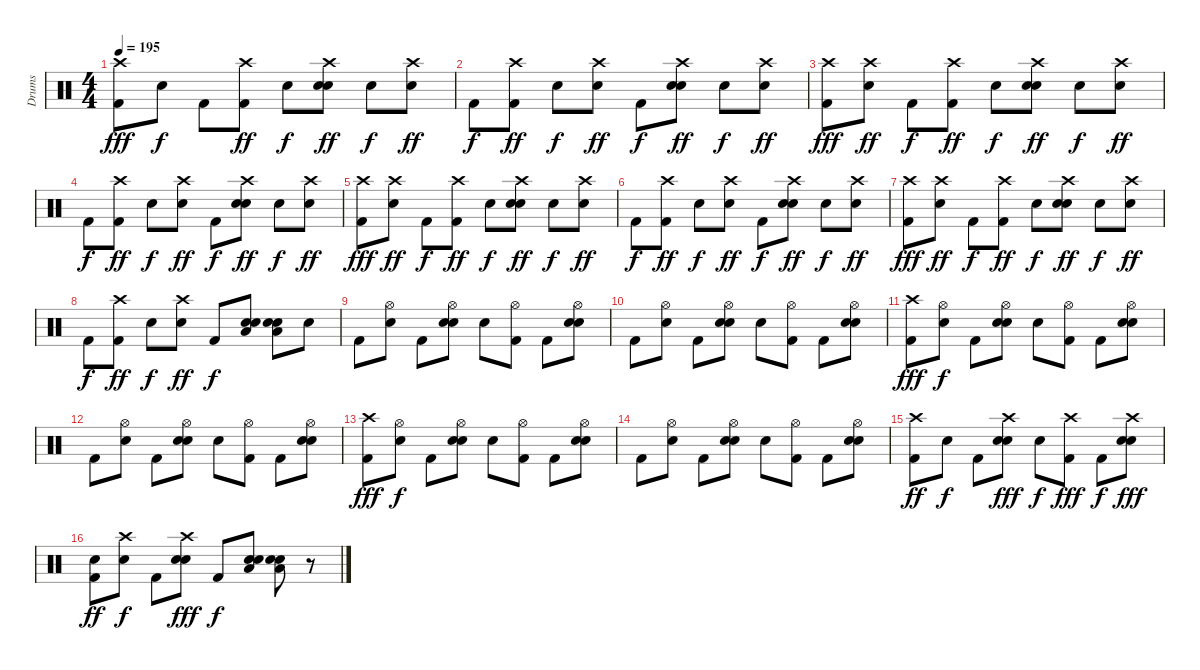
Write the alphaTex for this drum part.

\track ("Drums" "Drums") {instrument percussion}
\staff {score}
\articulation defaults
\ts (4 4)
\tempo 195
\clef neutral
\ks c
("Crash high (hit)" "Kick (hit) 2").8{dy fff} "Snare (hit)".8{dy f} "Kick (hit) 2".8 ("Crash high (hit)" "Kick (hit) 2").8{dy ff} "Snare (hit)".8{dy f} ("Crash high (hit)" "Snare (hit) 2" "Snare (hit)").8{dy ff} "Snare (hit)".8{dy f} ("Crash high (hit)" "Snare (hit)").8{dy ff} |
"Kick (hit) 2".8{dy f} ("Crash high (hit)" "Kick (hit) 2").8{dy ff} "Snare (hit)".8{dy f} ("Crash high (hit)" "Snare (hit)").8{dy ff} "Kick (hit) 2".8{dy f} ("Crash high (hit)" "Snare (hit) 2" "Snare (hit)").8{dy ff} "Snare (hit)".8{dy f} ("Crash high (hit)" "Snare (hit)").8{dy ff} |
("Crash high (hit)" "Kick (hit) 2").8{dy fff} ("Crash high (hit)" "Snare (hit)").8{dy ff} "Kick (hit) 2".8{dy f} ("Crash high (hit)" "Kick (hit) 2").8{dy ff} "Snare (hit)".8{dy f} ("Crash high (hit)" "Snare (hit) 2" "Snare (hit)").8{dy ff} "Snare (hit)".8{dy f} ("Crash high (hit)" "Snare (hit)").8{dy ff} |
"Kick (hit) 2".8{dy f} ("Crash high (hit)" "Kick (hit) 2").8{dy ff} "Snare (hit)".8{dy f} ("Crash high (hit)" "Snare (hit)").8{dy ff} "Kick (hit) 2".8{dy f} ("Crash high (hit)" "Snare (hit) 2" "Snare (hit)").8{dy ff} "Snare (hit)".8{dy f} ("Crash high (hit)" "Snare (hit)").8{dy ff} |
("Crash high (hit)" "Kick (hit) 2").8{dy fff} ("Crash high (hit)" "Snare (hit)").8{dy ff} "Kick (hit) 2".8{dy f} ("Crash high (hit)" "Kick (hit) 2").8{dy ff} "Snare (hit)".8{dy f} ("Crash high (hit)" "Snare (hit) 2" "Snare (hit)").8{dy ff} "Snare (hit)".8{dy f} ("Crash high (hit)" "Snare (hit)").8{dy ff} |
"Kick (hit) 2".8{dy f} ("Crash high (hit)" "Kick (hit) 2").8{dy ff} "Snare (hit)".8{dy f} ("Crash high (hit)" "Snare (hit)").8{dy ff} "Kick (hit) 2".8{dy f} ("Crash high (hit)" "Snare (hit) 2" "Snare (hit)").8{dy ff} "Snare (hit)".8{dy f} ("Crash high (hit)" "Snare (hit)").8{dy ff} |
("Crash high (hit)" "Kick (hit) 2").8{dy fff} ("Crash high (hit)" "Snare (hit)").8{dy ff} "Kick (hit) 2".8{dy f} ("Crash high (hit)" "Kick (hit) 2").8{dy ff} "Snare (hit)".8{dy f} ("Crash high (hit)" "Snare (hit) 2" "Snare (hit)").8{dy ff} "Snare (hit)".8{dy f} ("Crash high (hit)" "Snare (hit)").8{dy ff} |
"Kick (hit) 2".8{dy f} ("Crash high (hit)" "Kick (hit) 2").8{dy ff} "Snare (hit)".8{dy f} ("Crash high (hit)" "Snare (hit)").8{dy ff} "Kick (hit) 2".8{dy f} ("Low Floor Tom (hit)" "Snare (hit) 2" "Snare (hit)").8 ("Low Floor Tom (hit)" "Snare (hit) 2" "Snare (hit)").8 "Snare (hit)".8 |
"Kick (hit) 2".8 ("Hi-Hat (open)" "Snare (hit)").8 "Kick (hit) 2".8 ("Hi-Hat (open)" "Snare (hit) 2" "Snare (hit)").8 "Snare (hit)".8 ("Hi-Hat (open)" "Kick (hit) 2").8 "Kick (hit) 2".8 ("Hi-Hat (open)" "Snare (hit) 2" "Snare (hit)").8 |
"Kick (hit) 2".8 ("Hi-Hat (open)" "Snare (hit)").8 "Kick (hit) 2".8 ("Hi-Hat (open)" "Snare (hit) 2" "Snare (hit)").8 "Snare (hit)".8 ("Hi-Hat (open)" "Kick (hit) 2").8 "Kick (hit) 2".8 ("Hi-Hat (open)" "Snare (hit) 2" "Snare (hit)").8 |
("Crash high (hit)" "Kick (hit) 2").8{dy fff} ("Hi-Hat (open)" "Snare (hit)").8{dy f} "Kick (hit) 2".8 ("Hi-Hat (open)" "Snare (hit) 2" "Snare (hit)").8 "Snare (hit)".8 ("Hi-Hat (open)" "Kick (hit) 2").8 "Kick (hit) 2".8 ("Hi-Hat (open)" "Snare (hit) 2" "Snare (hit)").8 |
"Kick (hit) 2".8 ("Hi-Hat (open)" "Snare (hit)").8 "Kick (hit) 2".8 ("Hi-Hat (open)" "Snare (hit) 2" "Snare (hit)").8 "Snare (hit)".8 ("Hi-Hat (open)" "Kick (hit) 2").8 "Kick (hit) 2".8 ("Hi-Hat (open)" "Snare (hit) 2" "Snare (hit)").8 |
("Crash high (hit)" "Kick (hit) 2").8{dy fff} ("Hi-Hat (open)" "Snare (hit)").8{dy f} "Kick (hit) 2".8 ("Hi-Hat (open)" "Snare (hit) 2" "Snare (hit)").8 "Snare (hit)".8 ("Hi-Hat (open)" "Kick (hit) 2").8 "Kick (hit) 2".8 ("Hi-Hat (open)" "Snare (hit) 2" "Snare (hit)").8 |
"Kick (hit) 2".8 ("Hi-Hat (open)" "Snare (hit)").8 "Kick (hit) 2".8 ("Hi-Hat (open)" "Snare (hit) 2" "Snare (hit)").8 "Snare (hit)".8 ("Hi-Hat (open)" "Kick (hit) 2").8 "Kick (hit) 2".8 ("Hi-Hat (open)" "Snare (hit) 2" "Snare (hit)").8 |
("Crash high (hit)" "Kick (hit) 2").8{dy ff} "Snare (hit)".8{dy f} "Kick (hit) 2".8 ("Crash high (hit)" "Snare (hit) 2" "Snare (hit)").8{dy fff} "Snare (hit)".8{dy f} ("Crash high (hit)" "Kick (hit) 2").8{dy fff} "Kick (hit) 2".8{dy f} ("Crash high (hit)" "Snare (hit) 2" "Snare (hit)").8{dy fff} |
("Snare (hit)" "Kick (hit) 2").8{dy ff} ("Crash high (hit)" "Snare (hit)").8{dy f} "Kick (hit) 2".8 ("Crash high (hit)" "Snare (hit) 2" "Snare (hit)").8{dy fff} "Kick (hit) 2".8{dy f} ("Low Floor Tom (hit)" "Snare (hit) 2" "Snare (hit)").8 ("Low Floor Tom (hit)" "Snare (hit) 2" "Snare (hit)").8 r.8
